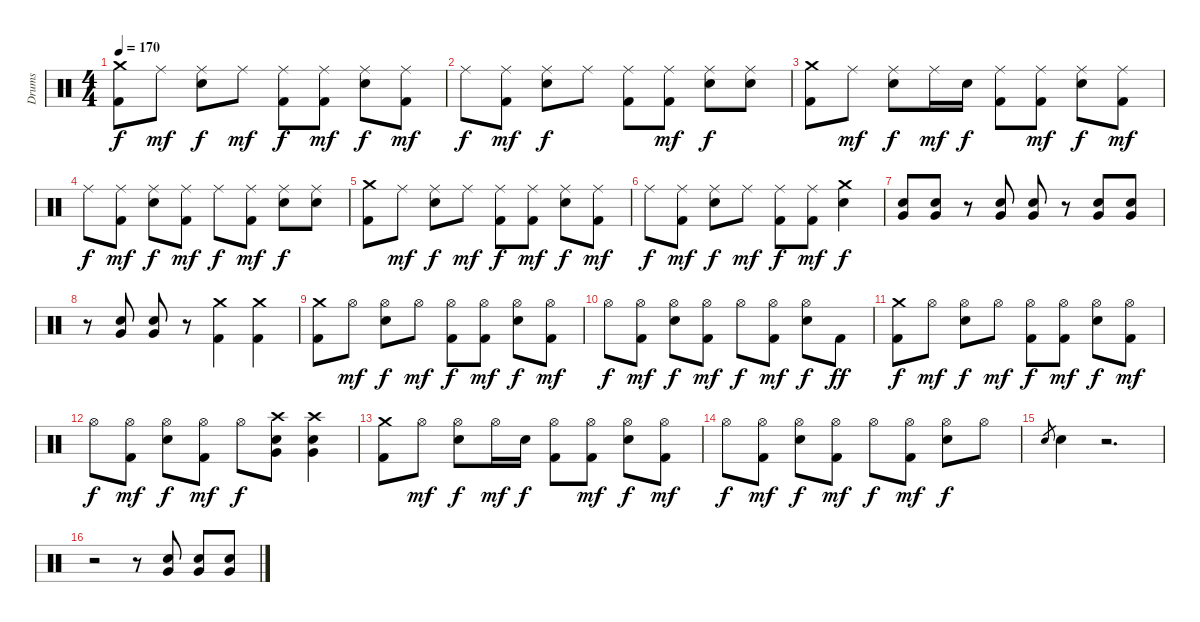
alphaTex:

\track ("Drums" "Drums") {instrument percussion}
\staff {score}
\articulation defaults
\ts (4 4)
\tempo 170
\clef neutral
\ks c
("Crash medium (hit)" "Kick (hit) 2").8{dy f} "Ride (middle)".8{dy mf} ("Ride (middle)" "Electric Snare (hit)").8{dy f} "Ride (middle)".8{dy mf} ("Ride (middle)" "Kick (hit) 2").8{dy f} ("Ride (middle)" "Kick (hit) 2").8{dy mf} ("Ride (middle)" "Electric Snare (hit)").8{dy f} ("Ride (middle)" "Kick (hit) 2").8{dy mf} |
"Ride (middle)".8{dy f} ("Ride (middle)" "Kick (hit) 2").8{dy mf} ("Ride (middle)" "Electric Snare (hit)").8{dy f} "Ride (middle)".8 ("Ride (middle)" "Kick (hit) 2").8 ("Ride (middle)" "Kick (hit) 2").8{dy mf} ("Ride (middle)" "Electric Snare (hit)").8{dy f} ("Ride (middle)" "Electric Snare (hit)").8 |
("Crash medium (hit)" "Kick (hit) 2").8 "Ride (middle)".8{dy mf} ("Ride (middle)" "Electric Snare (hit)").8{dy f} "Ride (middle)".16{dy mf} "Electric Snare (hit)".16{dy f} ("Ride (middle)" "Kick (hit) 2").8 ("Ride (middle)" "Kick (hit) 2").8{dy mf} ("Ride (middle)" "Electric Snare (hit)").8{dy f} ("Ride (middle)" "Kick (hit) 2").8{dy mf} |
"Ride (middle)".8{dy f} ("Ride (middle)" "Kick (hit) 2").8{dy mf} ("Ride (middle)" "Electric Snare (hit)").8{dy f} ("Ride (middle)" "Kick (hit) 2").8{dy mf} "Ride (middle)".8{dy f} ("Ride (middle)" "Kick (hit) 2").8{dy mf} ("Ride (middle)" "Electric Snare (hit)").8{dy f} ("Ride (middle)" "Electric Snare (hit)").8 |
("Crash medium (hit)" "Kick (hit) 2").8 "Ride (middle)".8{dy mf} ("Ride (middle)" "Electric Snare (hit)").8{dy f} "Ride (middle)".8{dy mf} ("Ride (middle)" "Kick (hit) 2").8{dy f} ("Ride (middle)" "Kick (hit) 2").8{dy mf} ("Ride (middle)" "Electric Snare (hit)").8{dy f} ("Ride (middle)" "Kick (hit) 2").8{dy mf} |
"Ride (middle)".8{dy f} ("Ride (middle)" "Kick (hit) 2").8{dy mf} ("Ride (middle)" "Electric Snare (hit)").8{dy f} "Ride (middle)".8{dy mf} ("Ride (middle)" "Kick (hit) 2").8{dy f} ("Ride (middle)" "Kick (hit) 2").8{dy mf} ("Crash medium (hit)" "Electric Snare (hit)").4{dy f} |
("Very Low Tom (hit)" "Electric Snare (hit)").8 ("Very Low Tom (hit)" "Electric Snare (hit)").8 r.8 ("Very Low Tom (hit)" "Electric Snare (hit)").8 ("Very Low Tom (hit)" "Electric Snare (hit)").8 r.8 ("Very Low Tom (hit)" "Electric Snare (hit)").8 ("Very Low Tom (hit)" "Electric Snare (hit)").8 |
r.8 ("Very Low Tom (hit)" "Electric Snare (hit)").8 ("Very Low Tom (hit)" "Electric Snare (hit)").8 r.8 ("Crash medium (hit)" "Kick (hit) 2").4 ("Crash medium (hit)" "Kick (hit) 2").4 |
("Crash medium (hit)" "Kick (hit) 2").8 "Hi-Hat (open)".8{dy mf} ("Hi-Hat (open)" "Electric Snare (hit)").8{dy f} "Hi-Hat (open)".8{dy mf} ("Hi-Hat (open)" "Kick (hit) 2").8{dy f} ("Hi-Hat (open)" "Kick (hit) 2").8{dy mf} ("Hi-Hat (open)" "Electric Snare (hit)").8{dy f} ("Hi-Hat (open)" "Kick (hit) 2").8{dy mf} |
"Hi-Hat (open)".8{dy f} ("Hi-Hat (open)" "Kick (hit) 2").8{dy mf} ("Hi-Hat (open)" "Electric Snare (hit)").8{dy f} ("Hi-Hat (open)" "Kick (hit) 2").8{dy mf} "Hi-Hat (open)".8{dy f} ("Hi-Hat (open)" "Kick (hit) 2").8{dy mf} ("Hi-Hat (open)" "Electric Snare (hit)").8{dy f} "Kick (hit) 2".8{dy ff} |
("Crash medium (hit)" "Kick (hit) 2").8{dy f} "Hi-Hat (open)".8{dy mf} ("Hi-Hat (open)" "Electric Snare (hit)").8{dy f} "Hi-Hat (open)".8{dy mf} ("Hi-Hat (open)" "Kick (hit) 2").8{dy f} ("Hi-Hat (open)" "Kick (hit) 2").8{dy mf} ("Hi-Hat (open)" "Electric Snare (hit)").8{dy f} ("Hi-Hat (open)" "Kick (hit) 2").8{dy mf} |
"Hi-Hat (open)".8{dy f} ("Hi-Hat (open)" "Kick (hit) 2").8{dy mf} ("Hi-Hat (open)" "Electric Snare (hit)").8{dy f} ("Hi-Hat (open)" "Kick (hit) 2").8{dy mf} "Hi-Hat (open)".8{dy f} ("Crash high (hit)" "Very Low Tom (hit)" "Electric Snare (hit)").8 ("Crash high (hit)" "Very Low Tom (hit)" "Electric Snare (hit)").4 |
("Crash medium (hit)" "Kick (hit) 2").8 "Hi-Hat (open)".8{dy mf} ("Hi-Hat (open)" "Electric Snare (hit)").8{dy f} "Hi-Hat (open)".16{dy mf} "Electric Snare (hit)".16{dy f} ("Hi-Hat (open)" "Kick (hit) 2").8 ("Hi-Hat (open)" "Kick (hit) 2").8{dy mf} ("Hi-Hat (open)" "Electric Snare (hit)").8{dy f} ("Hi-Hat (open)" "Kick (hit) 2").8{dy mf} |
"Hi-Hat (open)".8{dy f} ("Hi-Hat (open)" "Kick (hit) 2").8{dy mf} ("Hi-Hat (open)" "Electric Snare (hit)").8{dy f} ("Hi-Hat (open)" "Kick (hit) 2").8{dy mf} "Hi-Hat (open)".8{dy f} ("Hi-Hat (open)" "Kick (hit) 2").8{dy mf} ("Hi-Hat (open)" "Electric Snare (hit)").8{dy f} "Hi-Hat (open)".8 |
"Electric Snare (hit)".8{gr} "Electric Snare (hit)".4 r.2{d} |
r.2 r.8 ("Very Low Tom (hit)" "Electric Snare (hit)").8 ("Very Low Tom (hit)" "Electric Snare (hit)").8 ("Very Low Tom (hit)" "Electric Snare (hit)").8
